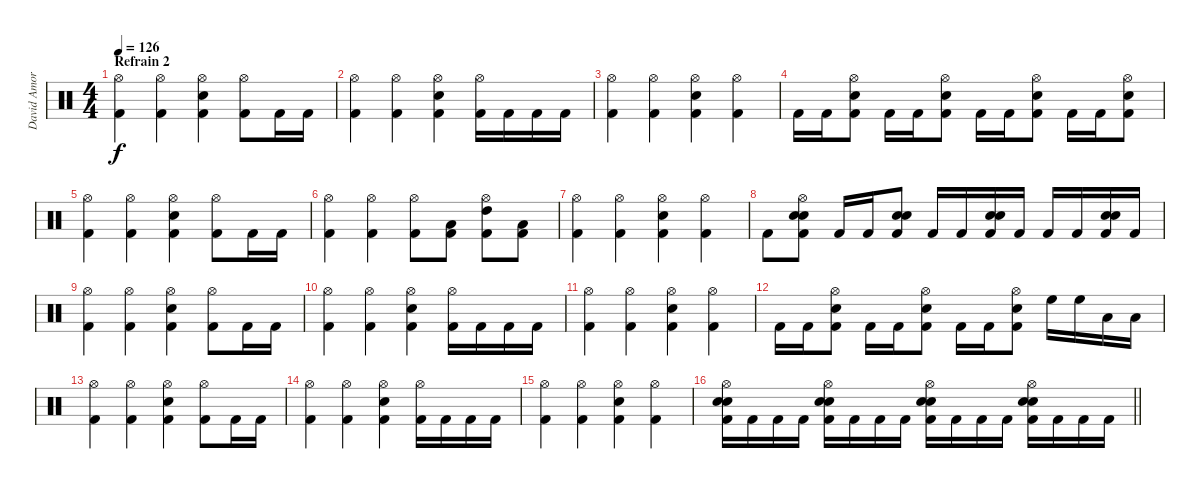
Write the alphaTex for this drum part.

\track ("David Amore" "David Amor") {instrument percussion}
\staff {score}
\articulation defaults
\ts (4 4)
\section ("" "Refrain 2")
\tempo 126
\clef neutral
\ks c
("Hi-Hat (open)" "Kick (hit) 2").4{dy f} ("Hi-Hat (open)" "Kick (hit) 2").4 ("Hi-Hat (open)" "Snare (hit) 2" "Kick (hit) 2").4 ("Hi-Hat (open)" "Kick (hit) 2").8 "Kick (hit) 2".16 "Kick (hit) 2".16 |
("Hi-Hat (open)" "Kick (hit) 2").4 ("Hi-Hat (open)" "Kick (hit) 2").4 ("Hi-Hat (open)" "Snare (hit) 2" "Kick (hit) 2").4 ("Hi-Hat (open)" "Kick (hit) 2").16 "Kick (hit) 2".16 "Kick (hit) 2".16 "Kick (hit) 2".16 |
("Hi-Hat (open)" "Kick (hit) 2").4 ("Hi-Hat (open)" "Kick (hit) 2").4 ("Hi-Hat (open)" "Snare (hit) 2" "Kick (hit) 2").4 ("Hi-Hat (open)" "Kick (hit) 2").4 |
"Kick (hit) 2".16 "Kick (hit) 2".16 ("Hi-Hat (open)" "Electric Snare (hit)" "Kick (hit) 2").8 "Kick (hit) 2".16 "Kick (hit) 2".16 ("Hi-Hat (open)" "Electric Snare (hit)" "Kick (hit) 2").8 "Kick (hit) 2".16 "Kick (hit) 2".16 ("Hi-Hat (open)" "Electric Snare (hit)" "Kick (hit) 2").8 "Kick (hit) 2".16 "Kick (hit) 2".16 ("Hi-Hat (open)" "Electric Snare (hit)" "Kick (hit) 2").8 |
("Hi-Hat (open)" "Kick (hit) 2").4 ("Hi-Hat (open)" "Kick (hit) 2").4 ("Hi-Hat (open)" "Snare (hit) 2" "Kick (hit) 2").4 ("Hi-Hat (open)" "Kick (hit) 2").8 "Kick (hit) 2".16 "Kick (hit) 2".16 |
("Hi-Hat (open)" "Kick (hit) 2").4 ("Hi-Hat (open)" "Kick (hit) 2").4 ("Hi-Hat (open)" "Kick (hit) 2").8 ("Low Floor Tom (hit)" "Kick (hit) 2").8 ("Hi-Hat (open)" "High Tom (hit)" "Kick (hit) 2").8 ("Low Floor Tom (hit)" "Kick (hit) 2").8 |
("Hi-Hat (open)" "Kick (hit) 2").4 ("Hi-Hat (open)" "Kick (hit) 2").4 ("Hi-Hat (open)" "Snare (hit) 2" "Kick (hit) 2").4 ("Hi-Hat (open)" "Kick (hit) 2").4 |
"Kick (hit) 2".8 ("Hi-Hat (open)" "Snare (hit) 2" "Electric Snare (hit)" "Kick (hit) 2").8 "Kick (hit) 2".16 "Kick (hit) 2".16 ("Electric Snare (hit)" "Snare (hit) 2" "Kick (hit) 2").8 "Kick (hit) 2".16 "Kick (hit) 2".16 ("Electric Snare (hit)" "Snare (hit) 2" "Kick (hit) 2").16 "Kick (hit) 2".16 "Kick (hit) 2".16 "Kick (hit) 2".16 ("Electric Snare (hit)" "Snare (hit) 2" "Kick (hit) 2").16 "Kick (hit) 2".16 |
("Hi-Hat (open)" "Kick (hit) 2").4 ("Hi-Hat (open)" "Kick (hit) 2").4 ("Hi-Hat (open)" "Snare (hit) 2" "Kick (hit) 2").4 ("Hi-Hat (open)" "Kick (hit) 2").8 "Kick (hit) 2".16 "Kick (hit) 2".16 |
("Hi-Hat (open)" "Kick (hit) 2").4 ("Hi-Hat (open)" "Kick (hit) 2").4 ("Hi-Hat (open)" "Snare (hit) 2" "Kick (hit) 2").4 ("Hi-Hat (open)" "Kick (hit) 2").16 "Kick (hit) 2".16 "Kick (hit) 2".16 "Kick (hit) 2".16 |
("Hi-Hat (open)" "Kick (hit) 2").4 ("Hi-Hat (open)" "Kick (hit) 2").4 ("Hi-Hat (open)" "Snare (hit) 2" "Kick (hit) 2").4 ("Hi-Hat (open)" "Kick (hit) 2").4 |
"Kick (hit) 2".16 "Kick (hit) 2".16 ("Hi-Hat (open)" "Electric Snare (hit)" "Kick (hit) 2").8 "Kick (hit) 2".16 "Kick (hit) 2".16 ("Hi-Hat (open)" "Electric Snare (hit)" "Kick (hit) 2").8 "Kick (hit) 2".16 "Kick (hit) 2".16 ("Hi-Hat (open)" "Electric Snare (hit)" "Kick (hit) 2").8 "High Floor Tom (hit)".16 "High Floor Tom (hit)".16 "Low Tom (hit)".16 "Low Tom (hit)".16 |
("Hi-Hat (open)" "Kick (hit) 2").4 ("Hi-Hat (open)" "Kick (hit) 2").4 ("Hi-Hat (open)" "Snare (hit) 2" "Kick (hit) 2").4 ("Hi-Hat (open)" "Kick (hit) 2").8 "Kick (hit) 2".16 "Kick (hit) 2".16 |
("Hi-Hat (open)" "Kick (hit) 2").4 ("Hi-Hat (open)" "Kick (hit) 2").4 ("Hi-Hat (open)" "Snare (hit) 2" "Kick (hit) 2").4 ("Hi-Hat (open)" "Kick (hit) 2").16 "Kick (hit) 2".16 "Kick (hit) 2".16 "Kick (hit) 2".16 |
("Hi-Hat (open)" "Kick (hit) 2").4 ("Hi-Hat (open)" "Kick (hit) 2").4 ("Hi-Hat (open)" "Snare (hit) 2" "Kick (hit) 2").4 ("Hi-Hat (open)" "Kick (hit) 2").4 |
\barLineRight lightlight
("Hi-Hat (open)" "Electric Snare (hit)" "Snare (hit) 2" "Kick (hit) 2").16 "Kick (hit) 2".16 "Kick (hit) 2".16 "Kick (hit) 2".16 ("Hi-Hat (open)" "Electric Snare (hit)" "Snare (hit) 2" "Kick (hit) 2").16 "Kick (hit) 2".16 "Kick (hit) 2".16 "Kick (hit) 2".16 ("Hi-Hat (open)" "Electric Snare (hit)" "Snare (hit) 2" "Kick (hit) 2").16 "Kick (hit) 2".16 "Kick (hit) 2".16 "Kick (hit) 2".16 ("Hi-Hat (open)" "Electric Snare (hit)" "Snare (hit) 2" "Kick (hit) 2").16 "Kick (hit) 2".16 "Kick (hit) 2".16 "Kick (hit) 2".16
